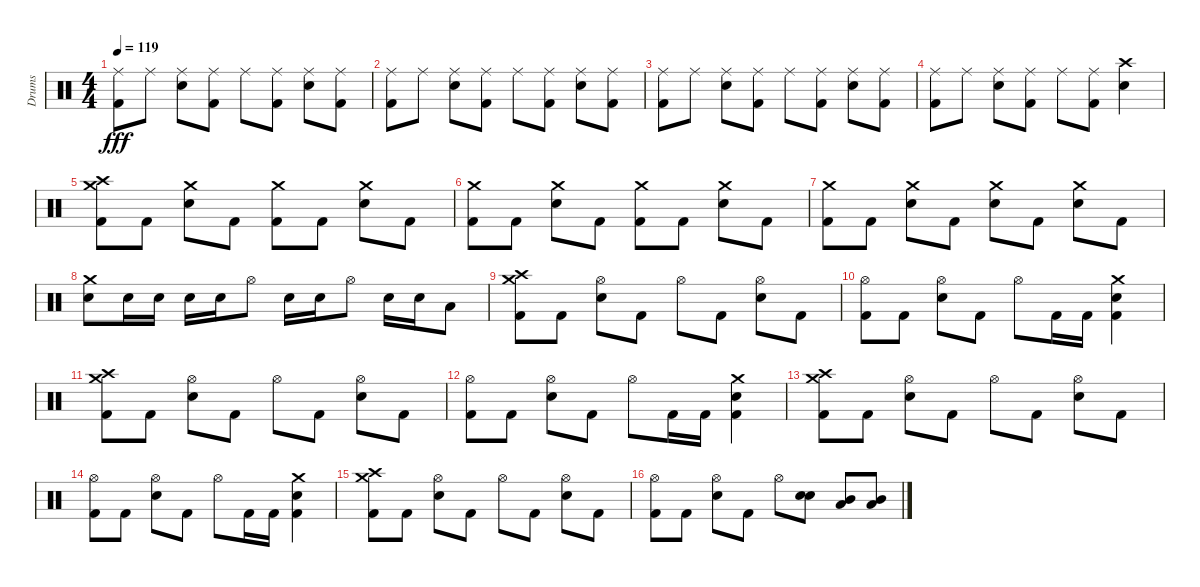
\track ("Drums" "Drums") {instrument percussion}
\staff {score}
\articulation defaults
\ts (4 4)
\tempo 119
\clef neutral
\ks c
("Ride (middle)" "Kick (hit) 2").8{dy fff} "Ride (middle)".8 ("Ride (middle)" "Snare (hit) 2").8 ("Ride (middle)" "Kick (hit) 2").8 "Ride (middle)".8 ("Ride (middle)" "Kick (hit) 2").8 ("Ride (middle)" "Snare (hit) 2").8 ("Ride (middle)" "Kick (hit) 2").8 |
("Ride (middle)" "Kick (hit) 2").8 "Ride (middle)".8 ("Ride (middle)" "Snare (hit) 2").8 ("Ride (middle)" "Kick (hit) 2").8 "Ride (middle)".8 ("Ride (middle)" "Kick (hit) 2").8 ("Ride (middle)" "Snare (hit) 2").8 ("Ride (middle)" "Kick (hit) 2").8 |
("Ride (middle)" "Kick (hit) 2").8 "Ride (middle)".8 ("Ride (middle)" "Snare (hit) 2").8 ("Ride (middle)" "Kick (hit) 2").8 "Ride (middle)".8 ("Ride (middle)" "Kick (hit) 2").8 ("Ride (middle)" "Snare (hit) 2").8 ("Ride (middle)" "Kick (hit) 2").8 |
("Ride (middle)" "Kick (hit) 2").8 "Ride (middle)".8 ("Ride (middle)" "Snare (hit) 2").8 ("Ride (middle)" "Kick (hit) 2").8 "Ride (middle)".8 ("Ride (middle)" "Kick (hit) 2").8 ("Crash high (hit)" "Snare (hit) 2").4 |
("Crash high (hit)" "Crash medium (hit)" "Kick (hit) 2").8 "Kick (hit) 2".8 ("Crash medium (hit)" "Snare (hit) 2").8 "Kick (hit) 2".8 ("Crash medium (hit)" "Kick (hit) 2").8 "Kick (hit) 2".8 ("Crash medium (hit)" "Snare (hit) 2").8 "Kick (hit) 2".8 |
("Crash medium (hit)" "Kick (hit) 2").8 "Kick (hit) 2".8 ("Crash medium (hit)" "Snare (hit) 2").8 "Kick (hit) 2".8 ("Crash medium (hit)" "Kick (hit) 2").8 "Kick (hit) 2".8 ("Crash medium (hit)" "Snare (hit) 2").8 "Kick (hit) 2".8 |
("Crash medium (hit)" "Kick (hit) 2").8 "Kick (hit) 2".8 ("Crash medium (hit)" "Snare (hit) 2").8 "Kick (hit) 2".8 ("Crash medium (hit)" "Snare (hit) 2").8 "Kick (hit) 2".8 ("Crash medium (hit)" "Snare (hit) 2").8 "Kick (hit) 2".8 |
("Crash medium (hit)" "Snare (hit) 2").8 "Snare (hit) 2".16 "Snare (hit) 2".16 "Snare (hit) 2".16 "Snare (hit) 2".16 "Hi-Hat (open)".8 "Snare (hit) 2".16 "Snare (hit) 2".16 "Hi-Hat (open)".8 "Snare (hit) 2".16 "Snare (hit) 2".16 "Low Tom (hit)".8 |
("Crash medium (hit)" "Crash high (hit)" "Kick (hit) 2").8 "Kick (hit) 2".8 ("Hi-Hat (open)" "Snare (hit) 2").8 "Kick (hit) 2".8 "Hi-Hat (open)".8 "Kick (hit) 2".8 ("Hi-Hat (open)" "Snare (hit) 2").8 "Kick (hit) 2".8 |
("Hi-Hat (open)" "Kick (hit) 2").8 "Kick (hit) 2".8 ("Snare (hit) 2" "Hi-Hat (open)").8 "Kick (hit) 2".8 "Hi-Hat (open)".8 "Kick (hit) 2".16 "Kick (hit) 2".16 ("Crash medium (hit)" "Snare (hit) 2" "Kick (hit) 2").4 |
("Crash medium (hit)" "Crash high (hit)" "Kick (hit) 2").8 "Kick (hit) 2".8 ("Hi-Hat (open)" "Snare (hit) 2").8 "Kick (hit) 2".8 "Hi-Hat (open)".8 "Kick (hit) 2".8 ("Hi-Hat (open)" "Snare (hit) 2").8 "Kick (hit) 2".8 |
("Hi-Hat (open)" "Kick (hit) 2").8 "Kick (hit) 2".8 ("Snare (hit) 2" "Hi-Hat (open)").8 "Kick (hit) 2".8 "Hi-Hat (open)".8 "Kick (hit) 2".16 "Kick (hit) 2".16 ("Crash medium (hit)" "Snare (hit) 2" "Kick (hit) 2").4 |
("Crash medium (hit)" "Crash high (hit)" "Kick (hit) 2").8 "Kick (hit) 2".8 ("Hi-Hat (open)" "Snare (hit) 2").8 "Kick (hit) 2".8 "Hi-Hat (open)".8 "Kick (hit) 2".8 ("Hi-Hat (open)" "Snare (hit) 2").8 "Kick (hit) 2".8 |
("Hi-Hat (open)" "Kick (hit) 2").8 "Kick (hit) 2".8 ("Snare (hit) 2" "Hi-Hat (open)").8 "Kick (hit) 2".8 "Hi-Hat (open)".8 "Kick (hit) 2".16 "Kick (hit) 2".16 ("Crash medium (hit)" "Snare (hit) 2" "Kick (hit) 2").4 |
("Crash medium (hit)" "Crash high (hit)" "Kick (hit) 2").8 "Kick (hit) 2".8 ("Hi-Hat (open)" "Snare (hit) 2").8 "Kick (hit) 2".8 "Hi-Hat (open)".8 "Kick (hit) 2".8 ("Hi-Hat (open)" "Snare (hit) 2").8 "Kick (hit) 2".8 |
("Hi-Hat (open)" "Kick (hit) 2").8 "Kick (hit) 2".8 ("Snare (hit) 2" "Hi-Hat (open)").8 "Kick (hit) 2".8 "Hi-Hat (open)".8 ("Snare (hit) 2" "Snare (hit) 2").8 ("Low Tom (hit)" "Mid Tom (hit)").8 ("Mid Tom (hit)" "Low Floor Tom (hit)").8
